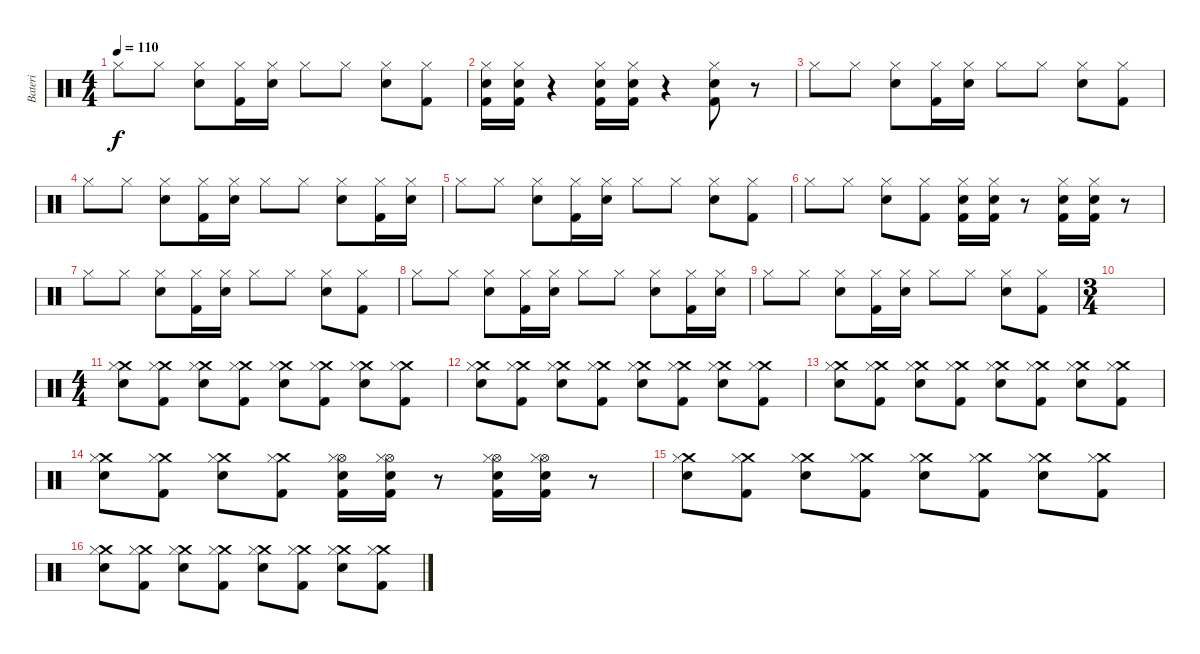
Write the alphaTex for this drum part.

\track ("Bateri" "Bateri") {instrument percussion}
\staff {score}
\articulation defaults
\ts (4 4)
\tempo 110
\clef neutral
\ks c "Hi-Hat (closed)".8{dy f} "Hi-Hat (closed)".8
("Electric Snare (hit)" "Hi-Hat (closed)").8 ("Kick (hit) 2" "Hi-Hat (closed)").16 ("Electric Snare (hit)" "Hi-Hat (closed)").16 "Hi-Hat (closed)".8 "Hi-Hat (closed)".8 ("Electric Snare (hit)" "Hi-Hat (closed)").8 ("Kick (hit) 2" "Hi-Hat (closed)").8 |
("Electric Snare (hit)" "Kick (hit) 2" "Hi-Hat (closed)").16 ("Electric Snare (hit)" "Kick (hit) 2" "Hi-Hat (closed)").16 r.4 ("Electric Snare (hit)" "Kick (hit) 2" "Hi-Hat (closed)").16 ("Electric Snare (hit)" "Kick (hit) 2" "Hi-Hat (closed)").16 r.4 ("Electric Snare (hit)" "Kick (hit) 2" "Hi-Hat (closed)").8 r.8 |
"Hi-Hat (closed)".8 "Hi-Hat (closed)".8 ("Electric Snare (hit)" "Hi-Hat (closed)").8 ("Kick (hit) 2" "Hi-Hat (closed)").16 ("Electric Snare (hit)" "Hi-Hat (closed)").16 "Hi-Hat (closed)".8 "Hi-Hat (closed)".8 ("Electric Snare (hit)" "Hi-Hat (closed)").8 ("Kick (hit) 2" "Hi-Hat (closed)").8 |
"Hi-Hat (closed)".8 "Hi-Hat (closed)".8 ("Electric Snare (hit)" "Hi-Hat (closed)").8 ("Kick (hit) 2" "Hi-Hat (closed)").16 ("Electric Snare (hit)" "Hi-Hat (closed)").16 "Hi-Hat (closed)".8 "Hi-Hat (closed)".8 ("Electric Snare (hit)" "Hi-Hat (closed)").8 ("Kick (hit) 2" "Hi-Hat (closed)").16 ("Electric Snare (hit)" "Hi-Hat (closed)").16 |
"Hi-Hat (closed)".8 "Hi-Hat (closed)".8 ("Electric Snare (hit)" "Hi-Hat (closed)").8 ("Kick (hit) 2" "Hi-Hat (closed)").16 ("Electric Snare (hit)" "Hi-Hat (closed)").16 "Hi-Hat (closed)".8 "Hi-Hat (closed)".8 ("Electric Snare (hit)" "Hi-Hat (closed)").8 ("Kick (hit) 2" "Hi-Hat (closed)").8 |
"Hi-Hat (closed)".8 "Hi-Hat (closed)".8 ("Electric Snare (hit)" "Hi-Hat (closed)").8 ("Kick (hit) 2" "Hi-Hat (closed)").8 ("Electric Snare (hit)" "Kick (hit) 2" "Hi-Hat (closed)").16 ("Electric Snare (hit)" "Kick (hit) 2" "Hi-Hat (closed)").16 r.8 ("Electric Snare (hit)" "Kick (hit) 2" "Hi-Hat (closed)").16 ("Electric Snare (hit)" "Kick (hit) 2" "Hi-Hat (closed)").16 r.8 |
"Hi-Hat (closed)".8 "Hi-Hat (closed)".8 ("Electric Snare (hit)" "Hi-Hat (closed)").8 ("Kick (hit) 2" "Hi-Hat (closed)").16 ("Electric Snare (hit)" "Hi-Hat (closed)").16 "Hi-Hat (closed)".8 "Hi-Hat (closed)".8 ("Electric Snare (hit)" "Hi-Hat (closed)").8 ("Kick (hit) 2" "Hi-Hat (closed)").8 |
"Hi-Hat (closed)".8 "Hi-Hat (closed)".8 ("Electric Snare (hit)" "Hi-Hat (closed)").8 ("Kick (hit) 2" "Hi-Hat (closed)").16 ("Electric Snare (hit)" "Hi-Hat (closed)").16 "Hi-Hat (closed)".8 "Hi-Hat (closed)".8 ("Electric Snare (hit)" "Hi-Hat (closed)").8 ("Kick (hit) 2" "Hi-Hat (closed)").16 ("Electric Snare (hit)" "Hi-Hat (closed)").16 |
"Hi-Hat (closed)".8 "Hi-Hat (closed)".8 ("Electric Snare (hit)" "Hi-Hat (closed)").8 ("Kick (hit) 2" "Hi-Hat (closed)").16 ("Electric Snare (hit)" "Hi-Hat (closed)").16 "Hi-Hat (closed)".8 "Hi-Hat (closed)".8 ("Electric Snare (hit)" "Hi-Hat (closed)").8 ("Kick (hit) 2" "Hi-Hat (closed)").8 |
\ts (3 4)
|
\ts (4 4)
("Electric Snare (hit)" "Crash medium (hit)" "Hi-Hat (closed)").8{volume 9} ("Kick (hit) 2" "Crash medium (hit)" "Hi-Hat (closed)").8 ("Electric Snare (hit)" "Crash medium (hit)" "Hi-Hat (closed)").8 ("Kick (hit) 2" "Crash medium (hit)" "Hi-Hat (closed)").8 ("Electric Snare (hit)" "Crash medium (hit)" "Hi-Hat (closed)").8 ("Kick (hit) 2" "Crash medium (hit)" "Hi-Hat (closed)").8 ("Electric Snare (hit)" "Crash medium (hit)" "Hi-Hat (closed)").8 ("Kick (hit) 2" "Crash medium (hit)" "Hi-Hat (closed)").8 |
("Electric Snare (hit)" "Crash medium (hit)" "Hi-Hat (closed)").8 ("Kick (hit) 2" "Crash medium (hit)" "Hi-Hat (closed)").8 ("Electric Snare (hit)" "Crash medium (hit)" "Hi-Hat (closed)").8 ("Kick (hit) 2" "Crash medium (hit)" "Hi-Hat (closed)").8 ("Electric Snare (hit)" "Crash medium (hit)" "Hi-Hat (closed)").8 ("Kick (hit) 2" "Crash medium (hit)" "Hi-Hat (closed)").8 ("Electric Snare (hit)" "Crash medium (hit)" "Hi-Hat (closed)").8 ("Kick (hit) 2" "Crash medium (hit)" "Hi-Hat (closed)").8 |
("Electric Snare (hit)" "Crash medium (hit)" "Hi-Hat (closed)").8 ("Kick (hit) 2" "Crash medium (hit)" "Hi-Hat (closed)").8 ("Electric Snare (hit)" "Crash medium (hit)" "Hi-Hat (closed)").8 ("Kick (hit) 2" "Crash medium (hit)" "Hi-Hat (closed)").8 ("Electric Snare (hit)" "Crash medium (hit)" "Hi-Hat (closed)").8 ("Kick (hit) 2" "Crash medium (hit)" "Hi-Hat (closed)").8 ("Electric Snare (hit)" "Crash medium (hit)" "Hi-Hat (closed)").8 ("Kick (hit) 2" "Crash medium (hit)" "Hi-Hat (closed)").8 |
("Electric Snare (hit)" "Crash medium (hit)" "Hi-Hat (closed)").8 ("Kick (hit) 2" "Crash medium (hit)" "Hi-Hat (closed)").8 ("Electric Snare (hit)" "Crash medium (hit)" "Hi-Hat (closed)").8 ("Kick (hit) 2" "Crash medium (hit)" "Hi-Hat (closed)").8 ("Electric Snare (hit)" "Kick (hit) 2" "Hi-Hat (open)" "Hi-Hat (closed)").16{volume 11} ("Kick (hit) 2" "Electric Snare (hit)" "Hi-Hat (open)" "Hi-Hat (closed)").16 r.8 ("Kick (hit) 2" "Electric Snare (hit)" "Hi-Hat (open)" "Hi-Hat (closed)").16 ("Electric Snare (hit)" "Kick (hit) 2" "Hi-Hat (open)" "Hi-Hat (closed)").16 r.8 |
("Electric Snare (hit)" "Crash medium (hit)" "Hi-Hat (closed)").8{volume 9} ("Kick (hit) 2" "Crash medium (hit)" "Hi-Hat (closed)").8 ("Electric Snare (hit)" "Crash medium (hit)" "Hi-Hat (closed)").8 ("Kick (hit) 2" "Crash medium (hit)" "Hi-Hat (closed)").8 ("Electric Snare (hit)" "Crash medium (hit)" "Hi-Hat (closed)").8 ("Kick (hit) 2" "Crash medium (hit)" "Hi-Hat (closed)").8 ("Electric Snare (hit)" "Crash medium (hit)" "Hi-Hat (closed)").8 ("Kick (hit) 2" "Crash medium (hit)" "Hi-Hat (closed)").8 |
("Electric Snare (hit)" "Crash medium (hit)" "Hi-Hat (closed)").8 ("Kick (hit) 2" "Crash medium (hit)" "Hi-Hat (closed)").8 ("Electric Snare (hit)" "Crash medium (hit)" "Hi-Hat (closed)").8 ("Kick (hit) 2" "Crash medium (hit)" "Hi-Hat (closed)").8 ("Electric Snare (hit)" "Crash medium (hit)" "Hi-Hat (closed)").8 ("Kick (hit) 2" "Crash medium (hit)" "Hi-Hat (closed)").8 ("Electric Snare (hit)" "Crash medium (hit)" "Hi-Hat (closed)").8 ("Kick (hit) 2" "Crash medium (hit)" "Hi-Hat (closed)").8
